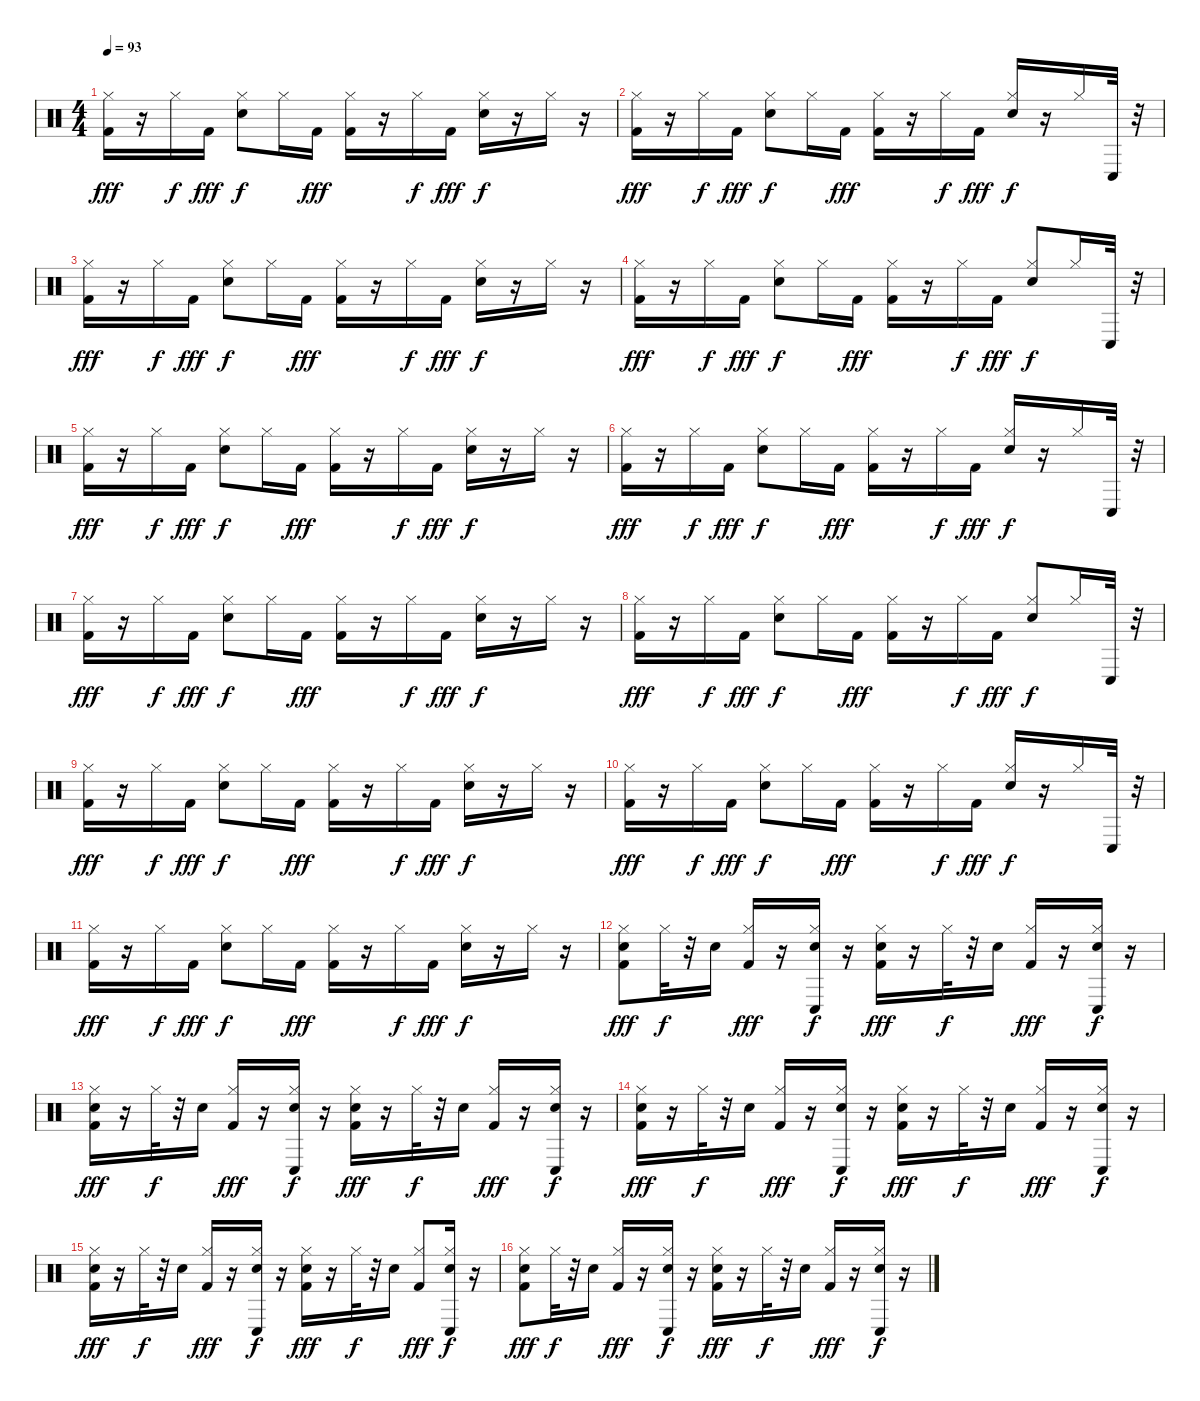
\track "" {instrument percussion}
\staff {score}
\articulation defaults
\ts (4 4)
\tempo 93
\clef neutral
\ks c
("Kick (hit) 2" "Hi-Hat (closed)").16{dy fff} r.16 "Hi-Hat (closed)".16{dy f} "Kick (hit) 2".16{dy fff} ("Snare (hit) 2" "Hi-Hat (closed)").8{dy f} "Hi-Hat (closed)".16 "Kick (hit) 2".16{dy fff} ("Kick (hit) 2" "Hi-Hat (closed)").16 r.16 "Hi-Hat (closed)".16{dy f} "Kick (hit) 2".16{dy fff} ("Snare (hit) 2" "Hi-Hat (closed)").16{dy f} r.16 "Hi-Hat (closed)".16 r.16 |
("Kick (hit) 2" "Hi-Hat (closed)").16{dy fff} r.16 "Hi-Hat (closed)".16{dy f} "Kick (hit) 2".16{dy fff} ("Snare (hit) 2" "Hi-Hat (closed)").8{dy f} "Hi-Hat (closed)".16 "Kick (hit) 2".16{dy fff} ("Kick (hit) 2" "Hi-Hat (closed)").16 r.16 "Hi-Hat (closed)".16{dy f} "Kick (hit) 2".16{dy fff} ("Snare (hit) 2" "Hi-Hat (closed)").16{dy f} r.16 "Hi-Hat (closed)".16 "Conga low (hit)".32 r.32 |
("Kick (hit) 2" "Hi-Hat (closed)").16{dy fff} r.16 "Hi-Hat (closed)".16{dy f} "Kick (hit) 2".16{dy fff} ("Snare (hit) 2" "Hi-Hat (closed)").8{dy f} "Hi-Hat (closed)".16 "Kick (hit) 2".16{dy fff} ("Kick (hit) 2" "Hi-Hat (closed)").16 r.16 "Hi-Hat (closed)".16{dy f} "Kick (hit) 2".16{dy fff} ("Snare (hit) 2" "Hi-Hat (closed)").16{dy f} r.16 "Hi-Hat (closed)".16 r.16 |
("Kick (hit) 2" "Hi-Hat (closed)").16{dy fff} r.16 "Hi-Hat (closed)".16{dy f} "Kick (hit) 2".16{dy fff} ("Snare (hit) 2" "Hi-Hat (closed)").8{dy f} "Hi-Hat (closed)".16 "Kick (hit) 2".16{dy fff} ("Kick (hit) 2" "Hi-Hat (closed)").16 r.16 "Hi-Hat (closed)".16{dy f} "Kick (hit) 2".16{dy fff} ("Snare (hit) 2" "Hi-Hat (closed)").8{dy f} "Hi-Hat (closed)".16 "Conga low (hit)".32 r.32 |
("Kick (hit) 2" "Hi-Hat (closed)").16{dy fff} r.16 "Hi-Hat (closed)".16{dy f} "Kick (hit) 2".16{dy fff} ("Snare (hit) 2" "Hi-Hat (closed)").8{dy f} "Hi-Hat (closed)".16 "Kick (hit) 2".16{dy fff} ("Kick (hit) 2" "Hi-Hat (closed)").16 r.16 "Hi-Hat (closed)".16{dy f} "Kick (hit) 2".16{dy fff} ("Snare (hit) 2" "Hi-Hat (closed)").16{dy f} r.16 "Hi-Hat (closed)".16 r.16 |
("Kick (hit) 2" "Hi-Hat (closed)").16{dy fff} r.16 "Hi-Hat (closed)".16{dy f} "Kick (hit) 2".16{dy fff} ("Snare (hit) 2" "Hi-Hat (closed)").8{dy f} "Hi-Hat (closed)".16 "Kick (hit) 2".16{dy fff} ("Kick (hit) 2" "Hi-Hat (closed)").16 r.16 "Hi-Hat (closed)".16{dy f} "Kick (hit) 2".16{dy fff} ("Snare (hit) 2" "Hi-Hat (closed)").16{dy f} r.16 "Hi-Hat (closed)".16 "Conga low (hit)".32 r.32 |
("Kick (hit) 2" "Hi-Hat (closed)").16{dy fff} r.16 "Hi-Hat (closed)".16{dy f} "Kick (hit) 2".16{dy fff} ("Snare (hit) 2" "Hi-Hat (closed)").8{dy f} "Hi-Hat (closed)".16 "Kick (hit) 2".16{dy fff} ("Kick (hit) 2" "Hi-Hat (closed)").16 r.16 "Hi-Hat (closed)".16{dy f} "Kick (hit) 2".16{dy fff} ("Snare (hit) 2" "Hi-Hat (closed)").16{dy f} r.16 "Hi-Hat (closed)".16 r.16 |
("Kick (hit) 2" "Hi-Hat (closed)").16{dy fff} r.16 "Hi-Hat (closed)".16{dy f} "Kick (hit) 2".16{dy fff} ("Snare (hit) 2" "Hi-Hat (closed)").8{dy f} "Hi-Hat (closed)".16 "Kick (hit) 2".16{dy fff} ("Kick (hit) 2" "Hi-Hat (closed)").16 r.16 "Hi-Hat (closed)".16{dy f} "Kick (hit) 2".16{dy fff} ("Snare (hit) 2" "Hi-Hat (closed)").8{dy f} "Hi-Hat (closed)".16 "Conga low (hit)".32 r.32 |
("Kick (hit) 2" "Hi-Hat (closed)").16{dy fff} r.16 "Hi-Hat (closed)".16{dy f} "Kick (hit) 2".16{dy fff} ("Snare (hit) 2" "Hi-Hat (closed)").8{dy f} "Hi-Hat (closed)".16 "Kick (hit) 2".16{dy fff} ("Kick (hit) 2" "Hi-Hat (closed)").16 r.16 "Hi-Hat (closed)".16{dy f} "Kick (hit) 2".16{dy fff} ("Snare (hit) 2" "Hi-Hat (closed)").16{dy f} r.16 "Hi-Hat (closed)".16 r.16 |
("Kick (hit) 2" "Hi-Hat (closed)").16{dy fff} r.16 "Hi-Hat (closed)".16{dy f} "Kick (hit) 2".16{dy fff} ("Snare (hit) 2" "Hi-Hat (closed)").8{dy f} "Hi-Hat (closed)".16 "Kick (hit) 2".16{dy fff} ("Kick (hit) 2" "Hi-Hat (closed)").16 r.16 "Hi-Hat (closed)".16{dy f} "Kick (hit) 2".16{dy fff} ("Snare (hit) 2" "Hi-Hat (closed)").16{dy f} r.16 "Hi-Hat (closed)".16 "Conga low (hit)".32 r.32 |
("Kick (hit) 2" "Hi-Hat (closed)").16{dy fff} r.16 "Hi-Hat (closed)".16{dy f} "Kick (hit) 2".16{dy fff} ("Snare (hit) 2" "Hi-Hat (closed)").8{dy f} "Hi-Hat (closed)".16 "Kick (hit) 2".16{dy fff} ("Kick (hit) 2" "Hi-Hat (closed)").16 r.16 "Hi-Hat (closed)".16{dy f} "Kick (hit) 2".16{dy fff} ("Snare (hit) 2" "Hi-Hat (closed)").16{dy f} r.16 "Hi-Hat (closed)".16 r.16 |
("Kick (hit) 2" "Snare (hit) 2" "Hi-Hat (closed)").8{dy fff} "Hi-Hat (closed)".32{dy f} r.32 "Snare (hit) 2".16 ("Kick (hit) 2" "Hi-Hat (closed)").16{dy fff} r.16 ("Snare (hit) 2" "Hi-Hat (closed)" "Conga low (hit)").16{dy f} r.16 ("Kick (hit) 2" "Snare (hit) 2" "Hi-Hat (closed)").16{dy fff} r.16 "Hi-Hat (closed)".32{dy f} r.32 "Snare (hit) 2".16 ("Kick (hit) 2" "Hi-Hat (closed)").16{dy fff} r.16 ("Hi-Hat (closed)" "Snare (hit) 2" "Conga low (hit)").16{dy f} r.16 |
("Kick (hit) 2" "Snare (hit) 2" "Hi-Hat (closed)").16{dy fff} r.16 "Hi-Hat (closed)".32{dy f} r.32 "Snare (hit) 2".16 ("Kick (hit) 2" "Hi-Hat (closed)").16{dy fff} r.16 ("Snare (hit) 2" "Hi-Hat (closed)" "Conga low (hit)").16{dy f} r.16 ("Kick (hit) 2" "Snare (hit) 2" "Hi-Hat (closed)").16{dy fff} r.16 "Hi-Hat (closed)".32{dy f} r.32 "Snare (hit) 2".16 ("Kick (hit) 2" "Hi-Hat (closed)").16{dy fff} r.16 ("Conga low (hit)" "Snare (hit) 2" "Hi-Hat (closed)").16{dy f} r.16 |
("Kick (hit) 2" "Snare (hit) 2" "Hi-Hat (closed)").16{dy fff} r.16 "Hi-Hat (closed)".32{dy f} r.32 "Snare (hit) 2".16 ("Kick (hit) 2" "Hi-Hat (closed)").16{dy fff} r.16 ("Snare (hit) 2" "Hi-Hat (closed)" "Conga low (hit)").16{dy f} r.16 ("Hi-Hat (closed)" "Kick (hit) 2" "Snare (hit) 2").16{dy fff} r.16 "Hi-Hat (closed)".32{dy f} r.32 "Snare (hit) 2".16 ("Hi-Hat (closed)" "Kick (hit) 2").16{dy fff} r.16 ("Hi-Hat (closed)" "Snare (hit) 2" "Conga low (hit)").16{dy f} r.16 |
("Kick (hit) 2" "Snare (hit) 2" "Hi-Hat (closed)").16{dy fff} r.16 "Hi-Hat (closed)".32{dy f} r.32 "Snare (hit) 2".16 ("Hi-Hat (closed)" "Kick (hit) 2").16{dy fff} r.16 ("Hi-Hat (closed)" "Snare (hit) 2" "Conga low (hit)").16{dy f} r.16 ("Kick (hit) 2" "Snare (hit) 2" "Hi-Hat (closed)").16{dy fff} r.16 "Hi-Hat (closed)".32{dy f} r.32 "Snare (hit) 2".16 ("Hi-Hat (closed)" "Kick (hit) 2").8{dy fff} ("Hi-Hat (closed)" "Conga low (hit)" "Snare (hit) 2").16{dy f} r.16 |
("Kick (hit) 2" "Snare (hit) 2" "Hi-Hat (closed)").8{dy fff} "Hi-Hat (closed)".32{dy f} r.32 "Snare (hit) 2".16 ("Kick (hit) 2" "Hi-Hat (closed)").16{dy fff} r.16 ("Snare (hit) 2" "Hi-Hat (closed)" "Conga low (hit)").16{dy f} r.16 ("Kick (hit) 2" "Snare (hit) 2" "Hi-Hat (closed)").16{dy fff} r.16 "Hi-Hat (closed)".32{dy f} r.32 "Snare (hit) 2".16 ("Kick (hit) 2" "Hi-Hat (closed)").16{dy fff} r.16 ("Hi-Hat (closed)" "Snare (hit) 2" "Conga low (hit)").16{dy f} r.16
